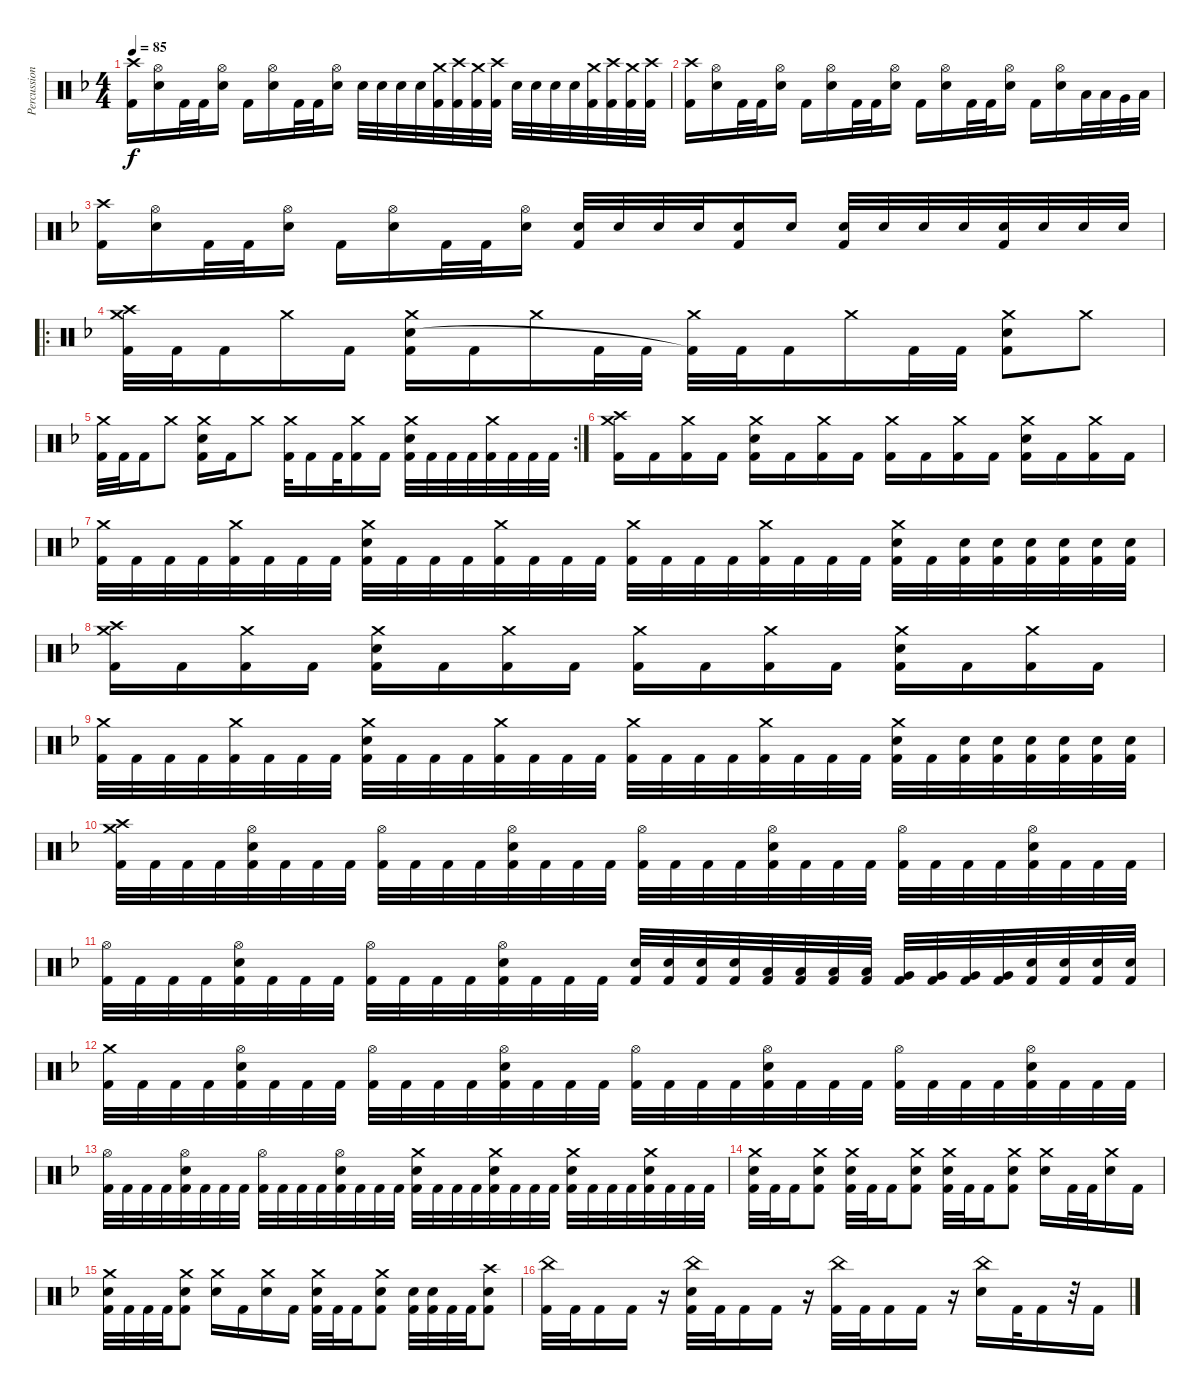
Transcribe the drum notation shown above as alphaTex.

\track ("Percussion" "Percussion") {instrument percussion}
\staff {score}
\articulation defaults
\ts (4 4)
\tempo 85
\clef neutral
\ks dminor
("Crash high (hit)" "Kick (hit) 2").16{dy f} ("Hi-Hat (open)" "Electric Snare (hit)").16 "Kick (hit) 2".32 "Kick (hit) 2".32 ("Hi-Hat (open)" "Electric Snare (hit)").16 "Kick (hit) 2".16 ("Hi-Hat (open)" "Electric Snare (hit)").16 "Kick (hit) 2".32 "Kick (hit) 2".32 ("Hi-Hat (open)" "Electric Snare (hit)").16 "Electric Snare (hit)".32 "Electric Snare (hit)".32 "Electric Snare (hit)".32 "Electric Snare (hit)".32 ("Crash medium (hit)" "Kick (hit) 2").32 ("Crash high (hit)" "Kick (hit) 2").32 ("Crash medium (hit)" "Kick (hit) 2").32 ("Crash high (hit)" "Kick (hit) 2").32 "Electric Snare (hit)".32 "Electric Snare (hit)".32 "Electric Snare (hit)".32 "Electric Snare (hit)".32 ("Crash medium (hit)" "Kick (hit) 2").32 ("Crash high (hit)" "Kick (hit) 2").32 ("Crash medium (hit)" "Kick (hit) 2").32 ("Crash high (hit)" "Kick (hit) 2").32 |
("Crash high (hit)" "Kick (hit) 2").16 ("Hi-Hat (open)" "Electric Snare (hit)").16 "Kick (hit) 2".32 "Kick (hit) 2".32 ("Hi-Hat (open)" "Electric Snare (hit)").16 "Kick (hit) 2".16 ("Hi-Hat (open)" "Electric Snare (hit)").16 "Kick (hit) 2".32 "Kick (hit) 2".32 ("Hi-Hat (open)" "Electric Snare (hit)").16 "Kick (hit) 2".16 ("Hi-Hat (open)" "Electric Snare (hit)").16 "Kick (hit) 2".32 "Kick (hit) 2".32 ("Hi-Hat (open)" "Electric Snare (hit)").16 "Kick (hit) 2".16 ("Hi-Hat (open)" "Electric Snare (hit)").16 "Low Tom (hit)".32 "Low Tom (hit)".32 "Very Low Tom (hit)".32 "Low Floor Tom (hit)".32 |
("Crash high (hit)" "Kick (hit) 2").16 ("Hi-Hat (open)" "Electric Snare (hit)").16 "Kick (hit) 2".32 "Kick (hit) 2".32 ("Hi-Hat (open)" "Electric Snare (hit)").16 "Kick (hit) 2".16 ("Hi-Hat (open)" "Electric Snare (hit)").16 "Kick (hit) 2".32 "Kick (hit) 2".32 ("Hi-Hat (open)" "Electric Snare (hit)").16 ("Electric Snare (hit)" "Kick (hit) 2").32 "Electric Snare (hit)".32 "Electric Snare (hit)".32 "Electric Snare (hit)".32 ("Electric Snare (hit)" "Kick (hit) 2").16 "Electric Snare (hit)".16 ("Electric Snare (hit)" "Kick (hit) 2").32 "Electric Snare (hit)".32 "Electric Snare (hit)".32 "Electric Snare (hit)".32 ("Electric Snare (hit)" "Kick (hit) 2").32 "Electric Snare (hit)".32 "Electric Snare (hit)".32 "Electric Snare (hit)".32 |
\ro
("Crash medium (hit)" "Crash high (hit)" "Kick (hit) 2").32 "Kick (hit) 2".32 "Kick (hit) 2".16 "Crash medium (hit)".16 "Kick (hit) 2".16 ("Crash medium (hit)" "Electric Snare (hit)" "Kick (hit) 2").16 "Kick (hit) 2".16 "Crash medium (hit)".16 "Kick (hit) 2".32 "Kick (hit) 2".32 ("Crash medium (hit)" "Kick (hit) 2"{t}).32 "Kick (hit) 2".32 "Kick (hit) 2".16 "Crash medium (hit)".16 "Kick (hit) 2".32 "Kick (hit) 2".32 ("Crash medium (hit)" "Electric Snare (hit)" "Kick (hit) 2").8 "Crash medium (hit)".8 |
\rc 2
("Crash medium (hit)" "Kick (hit) 2").32 "Kick (hit) 2".32 "Kick (hit) 2".16 "Crash medium (hit)".8 ("Crash medium (hit)" "Electric Snare (hit)" "Kick (hit) 2").16 "Kick (hit) 2".16 "Crash medium (hit)".8 ("Crash medium (hit)" "Kick (hit) 2").32 "Kick (hit) 2".16 "Kick (hit) 2".32 ("Crash medium (hit)" "Kick (hit) 2").16 "Kick (hit) 2".16 ("Crash medium (hit)" "Electric Snare (hit)" "Kick (hit) 2").32 "Kick (hit) 2".32 "Kick (hit) 2".32 "Kick (hit) 2".32 ("Crash medium (hit)" "Kick (hit) 2").32 "Kick (hit) 2".32 "Kick (hit) 2".32 "Kick (hit) 2".32 |
("Crash medium (hit)" "Crash high (hit)" "Kick (hit) 2").16 "Kick (hit) 2".16 ("Crash medium (hit)" "Kick (hit) 2").16 "Kick (hit) 2".16 ("Crash medium (hit)" "Electric Snare (hit)" "Kick (hit) 2").16 "Kick (hit) 2".16 ("Crash medium (hit)" "Kick (hit) 2").16 "Kick (hit) 2".16 ("Crash medium (hit)" "Kick (hit) 2").16 "Kick (hit) 2".16 ("Crash medium (hit)" "Kick (hit) 2").16 "Kick (hit) 2".16 ("Crash medium (hit)" "Electric Snare (hit)" "Kick (hit) 2").16 "Kick (hit) 2".16 ("Crash medium (hit)" "Kick (hit) 2").16 "Kick (hit) 2".16 |
("Crash medium (hit)" "Kick (hit) 2").32 "Kick (hit) 2".32 "Kick (hit) 2".32 "Kick (hit) 2".32 ("Crash medium (hit)" "Kick (hit) 2").32 "Kick (hit) 2".32 "Kick (hit) 2".32 "Kick (hit) 2".32 ("Crash medium (hit)" "Electric Snare (hit)" "Kick (hit) 2").32 "Kick (hit) 2".32 "Kick (hit) 2".32 "Kick (hit) 2".32 ("Crash medium (hit)" "Kick (hit) 2").32 "Kick (hit) 2".32 "Kick (hit) 2".32 "Kick (hit) 2".32 ("Crash medium (hit)" "Kick (hit) 2").32 "Kick (hit) 2".32 "Kick (hit) 2".32 "Kick (hit) 2".32 ("Crash medium (hit)" "Kick (hit) 2").32 "Kick (hit) 2".32 "Kick (hit) 2".32 "Kick (hit) 2".32 ("Crash medium (hit)" "Electric Snare (hit)" "Kick (hit) 2").32 "Kick (hit) 2".32 ("Electric Snare (hit)" "Kick (hit) 2").32 ("Electric Snare (hit)" "Kick (hit) 2").32 ("Electric Snare (hit)" "Kick (hit) 2").32 ("Electric Snare (hit)" "Kick (hit) 2").32 ("Electric Snare (hit)" "Kick (hit) 2").32 ("Electric Snare (hit)" "Kick (hit) 2").32 |
("Crash medium (hit)" "Crash high (hit)" "Kick (hit) 2").16 "Kick (hit) 2".16 ("Crash medium (hit)" "Kick (hit) 2").16 "Kick (hit) 2".16 ("Crash medium (hit)" "Electric Snare (hit)" "Kick (hit) 2").16 "Kick (hit) 2".16 ("Crash medium (hit)" "Kick (hit) 2").16 "Kick (hit) 2".16 ("Crash medium (hit)" "Kick (hit) 2").16 "Kick (hit) 2".16 ("Crash medium (hit)" "Kick (hit) 2").16 "Kick (hit) 2".16 ("Crash medium (hit)" "Electric Snare (hit)" "Kick (hit) 2").16 "Kick (hit) 2".16 ("Crash medium (hit)" "Kick (hit) 2").16 "Kick (hit) 2".16 |
("Crash medium (hit)" "Kick (hit) 2").32 "Kick (hit) 2".32 "Kick (hit) 2".32 "Kick (hit) 2".32 ("Crash medium (hit)" "Kick (hit) 2").32 "Kick (hit) 2".32 "Kick (hit) 2".32 "Kick (hit) 2".32 ("Crash medium (hit)" "Electric Snare (hit)" "Kick (hit) 2").32 "Kick (hit) 2".32 "Kick (hit) 2".32 "Kick (hit) 2".32 ("Crash medium (hit)" "Kick (hit) 2").32 "Kick (hit) 2".32 "Kick (hit) 2".32 "Kick (hit) 2".32 ("Crash medium (hit)" "Kick (hit) 2").32 "Kick (hit) 2".32 "Kick (hit) 2".32 "Kick (hit) 2".32 ("Crash medium (hit)" "Kick (hit) 2").32 "Kick (hit) 2".32 "Kick (hit) 2".32 "Kick (hit) 2".32 ("Crash medium (hit)" "Electric Snare (hit)" "Kick (hit) 2").32 "Kick (hit) 2".32 ("Electric Snare (hit)" "Kick (hit) 2").32 ("Electric Snare (hit)" "Kick (hit) 2").32 ("Electric Snare (hit)" "Kick (hit) 2").32 ("Electric Snare (hit)" "Kick (hit) 2").32 ("Electric Snare (hit)" "Kick (hit) 2").32 ("Electric Snare (hit)" "Kick (hit) 2").32 |
("Crash medium (hit)" "Crash high (hit)" "Kick (hit) 2").32 "Kick (hit) 2".32 "Kick (hit) 2".32 "Kick (hit) 2".32 ("Hi-Hat (open)" "Electric Snare (hit)" "Kick (hit) 2").32 "Kick (hit) 2".32 "Kick (hit) 2".32 "Kick (hit) 2".32 ("Hi-Hat (open)" "Kick (hit) 2").32 "Kick (hit) 2".32 "Kick (hit) 2".32 "Kick (hit) 2".32 ("Hi-Hat (open)" "Electric Snare (hit)" "Kick (hit) 2").32 "Kick (hit) 2".32 "Kick (hit) 2".32 "Kick (hit) 2".32 ("Hi-Hat (open)" "Kick (hit) 2").32 "Kick (hit) 2".32 "Kick (hit) 2".32 "Kick (hit) 2".32 ("Hi-Hat (open)" "Electric Snare (hit)" "Kick (hit) 2").32 "Kick (hit) 2".32 "Kick (hit) 2".32 "Kick (hit) 2".32 ("Hi-Hat (open)" "Kick (hit) 2").32 "Kick (hit) 2".32 "Kick (hit) 2".32 "Kick (hit) 2".32 ("Hi-Hat (open)" "Electric Snare (hit)" "Kick (hit) 2").32 "Kick (hit) 2".32 "Kick (hit) 2".32 "Kick (hit) 2".32 |
("Hi-Hat (open)" "Kick (hit) 2").32 "Kick (hit) 2".32 "Kick (hit) 2".32 "Kick (hit) 2".32 ("Hi-Hat (open)" "Electric Snare (hit)" "Kick (hit) 2").32 "Kick (hit) 2".32 "Kick (hit) 2".32 "Kick (hit) 2".32 ("Hi-Hat (open)" "Kick (hit) 2").32 "Kick (hit) 2".32 "Kick (hit) 2".32 "Kick (hit) 2".32 ("Hi-Hat (open)" "Electric Snare (hit)" "Kick (hit) 2").32 "Kick (hit) 2".32 "Kick (hit) 2".32 "Kick (hit) 2".32 ("Electric Snare (hit)" "Kick (hit) 2").32 ("Electric Snare (hit)" "Kick (hit) 2").32 ("Electric Snare (hit)" "Kick (hit) 2").32 ("Electric Snare (hit)" "Kick (hit) 2").32 ("Low Tom (hit)" "Kick (hit) 2").32 ("Low Tom (hit)" "Kick (hit) 2").32 ("Low Tom (hit)" "Kick (hit) 2").32 ("Low Tom (hit)" "Kick (hit) 2").32 ("Very Low Tom (hit)" "Kick (hit) 2").32 ("Very Low Tom (hit)" "Kick (hit) 2").32 ("Very Low Tom (hit)" "Kick (hit) 2").32 ("Very Low Tom (hit)" "Kick (hit) 2").32 ("Electric Snare (hit)" "Kick (hit) 2").32 ("Electric Snare (hit)" "Kick (hit) 2").32 ("Electric Snare (hit)" "Kick (hit) 2").32 ("Electric Snare (hit)" "Kick (hit) 2").32 |
("Crash medium (hit)" "Kick (hit) 2").32 "Kick (hit) 2".32 "Kick (hit) 2".32 "Kick (hit) 2".32 ("Hi-Hat (open)" "Electric Snare (hit)" "Kick (hit) 2").32 "Kick (hit) 2".32 "Kick (hit) 2".32 "Kick (hit) 2".32 ("Hi-Hat (open)" "Kick (hit) 2").32 "Kick (hit) 2".32 "Kick (hit) 2".32 "Kick (hit) 2".32 ("Hi-Hat (open)" "Electric Snare (hit)" "Kick (hit) 2").32 "Kick (hit) 2".32 "Kick (hit) 2".32 "Kick (hit) 2".32 ("Hi-Hat (open)" "Kick (hit) 2").32 "Kick (hit) 2".32 "Kick (hit) 2".32 "Kick (hit) 2".32 ("Hi-Hat (open)" "Electric Snare (hit)" "Kick (hit) 2").32 "Kick (hit) 2".32 "Kick (hit) 2".32 "Kick (hit) 2".32 ("Hi-Hat (open)" "Kick (hit) 2").32 "Kick (hit) 2".32 "Kick (hit) 2".32 "Kick (hit) 2".32 ("Hi-Hat (open)" "Electric Snare (hit)" "Kick (hit) 2").32 "Kick (hit) 2".32 "Kick (hit) 2".32 "Kick (hit) 2".32 |
("Hi-Hat (open)" "Kick (hit) 2").32 "Kick (hit) 2".32 "Kick (hit) 2".32 "Kick (hit) 2".32 ("Hi-Hat (open)" "Electric Snare (hit)" "Kick (hit) 2").32 "Kick (hit) 2".32 "Kick (hit) 2".32 "Kick (hit) 2".32 ("Hi-Hat (open)" "Kick (hit) 2").32 "Kick (hit) 2".32 "Kick (hit) 2".32 "Kick (hit) 2".32 ("Hi-Hat (open)" "Electric Snare (hit)" "Kick (hit) 2").32 "Kick (hit) 2".32 "Kick (hit) 2".32 "Kick (hit) 2".32 ("Crash medium (hit)" "Electric Snare (hit)" "Kick (hit) 2").32 "Kick (hit) 2".32 "Kick (hit) 2".32 "Kick (hit) 2".32 ("Crash medium (hit)" "Electric Snare (hit)" "Kick (hit) 2").32 "Kick (hit) 2".32 "Kick (hit) 2".32 "Kick (hit) 2".32 ("Crash medium (hit)" "Electric Snare (hit)" "Kick (hit) 2").32 "Kick (hit) 2".32 "Kick (hit) 2".32 "Kick (hit) 2".32 ("Crash medium (hit)" "Electric Snare (hit)" "Kick (hit) 2").32 "Kick (hit) 2".32 "Kick (hit) 2".32 "Kick (hit) 2".32 |
("Crash medium (hit)" "Electric Snare (hit)" "Kick (hit) 2").32 "Kick (hit) 2".32 "Kick (hit) 2".16 ("Crash medium (hit)" "Electric Snare (hit)" "Kick (hit) 2").8 ("Crash medium (hit)" "Electric Snare (hit)" "Kick (hit) 2").32 "Kick (hit) 2".32 "Kick (hit) 2".16 ("Crash medium (hit)" "Electric Snare (hit)" "Kick (hit) 2").8 ("Crash medium (hit)" "Electric Snare (hit)" "Kick (hit) 2").32 "Kick (hit) 2".32 "Kick (hit) 2".16 ("Crash medium (hit)" "Electric Snare (hit)" "Kick (hit) 2").8 ("Crash medium (hit)" "Electric Snare (hit)").16 "Kick (hit) 2".32 "Kick (hit) 2".32 ("Crash medium (hit)" "Electric Snare (hit)").16 "Kick (hit) 2".16 |
("Crash medium (hit)" "Electric Snare (hit)" "Kick (hit) 2").32 "Kick (hit) 2".32 "Kick (hit) 2".32 "Kick (hit) 2".32 ("Crash medium (hit)" "Electric Snare (hit)" "Kick (hit) 2").8 ("Crash medium (hit)" "Electric Snare (hit)").16 "Kick (hit) 2".16 ("Crash medium (hit)" "Electric Snare (hit)").16 "Kick (hit) 2".16 ("Crash medium (hit)" "Electric Snare (hit)" "Kick (hit) 2").32 "Kick (hit) 2".32 "Kick (hit) 2".16 ("Crash medium (hit)" "Electric Snare (hit)" "Kick (hit) 2").8 ("Electric Snare (hit)" "Kick (hit) 2").32 ("Electric Snare (hit)" "Kick (hit) 2").32 "Kick (hit) 2".32 "Kick (hit) 2".32 ("Crash high (hit)" "Electric Snare (hit)" "Kick (hit) 2").8 |
("China (hit)" "Kick (hit) 2").32 "Kick (hit) 2".32 "Kick (hit) 2".16 "Kick (hit) 2".16 r.16 ("China (hit)" "Electric Snare (hit)" "Kick (hit) 2").32 "Kick (hit) 2".32 "Kick (hit) 2".16 "Kick (hit) 2".16 r.16 ("China (hit)" "Kick (hit) 2").32 "Kick (hit) 2".32 "Kick (hit) 2".16 "Kick (hit) 2".16 r.16 ("China (hit)" "Electric Snare (hit)").16 "Kick (hit) 2".32 "Kick (hit) 2".16 r.32 "Kick (hit) 2".16
